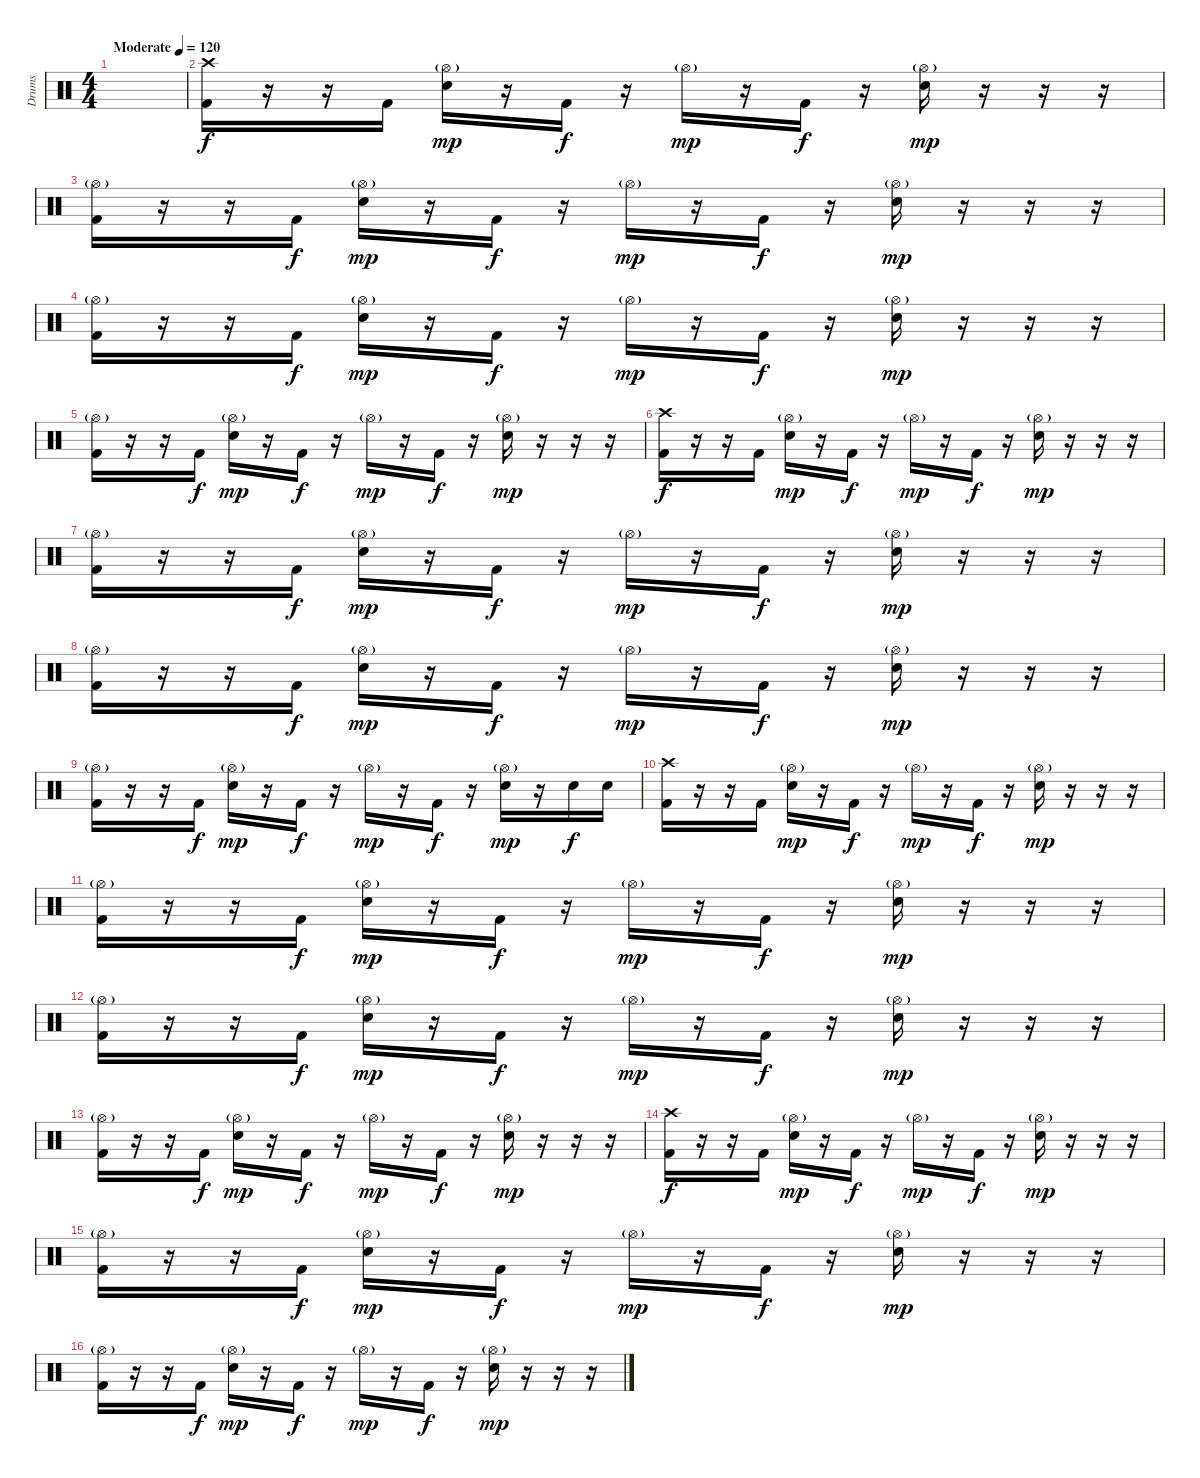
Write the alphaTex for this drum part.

\track ("Drums" "Drums") {instrument percussion}
\staff {score}
\articulation defaults
\ts (4 4)
\tempo (120 "Moderate")
\clef neutral
\ks c
|
("Crash high (hit)" "Kick (hit) 2").16 r.16 r.16 "Kick (hit) 2".16 ("Hi-Hat (open)"{g} "Electric Snare (hit)").16{dy mp} r.16 "Kick (hit) 2".16{dy f} r.16 "Hi-Hat (open)"{g}.16{dy mp} r.16 "Kick (hit) 2".16{dy f} r.16 ("Hi-Hat (open)"{g} "Electric Snare (hit)").16{dy mp} r.16 r.16 r.16 |
("Hi-Hat (open)"{g} "Kick (hit) 2").16 r.16 r.16 "Kick (hit) 2".16{dy f} ("Hi-Hat (open)"{g} "Electric Snare (hit)").16{dy mp} r.16 "Kick (hit) 2".16{dy f} r.16 "Hi-Hat (open)"{g}.16{dy mp} r.16 "Kick (hit) 2".16{dy f} r.16 ("Hi-Hat (open)"{g} "Electric Snare (hit)").16{dy mp} r.16 r.16 r.16 |
("Hi-Hat (open)"{g} "Kick (hit) 2").16 r.16 r.16 "Kick (hit) 2".16{dy f} ("Hi-Hat (open)"{g} "Electric Snare (hit)").16{dy mp} r.16 "Kick (hit) 2".16{dy f} r.16 "Hi-Hat (open)"{g}.16{dy mp} r.16 "Kick (hit) 2".16{dy f} r.16 ("Hi-Hat (open)"{g} "Electric Snare (hit)").16{dy mp} r.16 r.16 r.16 |
("Hi-Hat (open)"{g} "Kick (hit) 2").16 r.16 r.16 "Kick (hit) 2".16{dy f} ("Hi-Hat (open)"{g} "Electric Snare (hit)").16{dy mp} r.16 "Kick (hit) 2".16{dy f} r.16 "Hi-Hat (open)"{g}.16{dy mp} r.16 "Kick (hit) 2".16{dy f} r.16 ("Hi-Hat (open)"{g} "Electric Snare (hit)").16{dy mp} r.16 r.16 r.16 |
("Crash high (hit)" "Kick (hit) 2").16{dy f} r.16 r.16 "Kick (hit) 2".16 ("Hi-Hat (open)"{g} "Electric Snare (hit)").16{dy mp} r.16 "Kick (hit) 2".16{dy f} r.16 "Hi-Hat (open)"{g}.16{dy mp} r.16 "Kick (hit) 2".16{dy f} r.16 ("Hi-Hat (open)"{g} "Electric Snare (hit)").16{dy mp} r.16 r.16 r.16 |
("Hi-Hat (open)"{g} "Kick (hit) 2").16 r.16 r.16 "Kick (hit) 2".16{dy f} ("Hi-Hat (open)"{g} "Electric Snare (hit)").16{dy mp} r.16 "Kick (hit) 2".16{dy f} r.16 "Hi-Hat (open)"{g}.16{dy mp} r.16 "Kick (hit) 2".16{dy f} r.16 ("Hi-Hat (open)"{g} "Electric Snare (hit)").16{dy mp} r.16 r.16 r.16 |
("Hi-Hat (open)"{g} "Kick (hit) 2").16 r.16 r.16 "Kick (hit) 2".16{dy f} ("Hi-Hat (open)"{g} "Electric Snare (hit)").16{dy mp} r.16 "Kick (hit) 2".16{dy f} r.16 "Hi-Hat (open)"{g}.16{dy mp} r.16 "Kick (hit) 2".16{dy f} r.16 ("Hi-Hat (open)"{g} "Electric Snare (hit)").16{dy mp} r.16 r.16 r.16 |
("Hi-Hat (open)"{g} "Kick (hit) 2").16 r.16 r.16 "Kick (hit) 2".16{dy f} ("Hi-Hat (open)"{g} "Electric Snare (hit)").16{dy mp} r.16 "Kick (hit) 2".16{dy f} r.16 "Hi-Hat (open)"{g}.16{dy mp} r.16 "Kick (hit) 2".16{dy f} r.16 ("Hi-Hat (open)"{g} "Electric Snare (hit)").16{dy mp} r.16 "Electric Snare (hit)".16{dy f} "Electric Snare (hit)".16 |
("Crash high (hit)" "Kick (hit) 2").16 r.16 r.16 "Kick (hit) 2".16 ("Hi-Hat (open)"{g} "Electric Snare (hit)").16{dy mp} r.16 "Kick (hit) 2".16{dy f} r.16 "Hi-Hat (open)"{g}.16{dy mp} r.16 "Kick (hit) 2".16{dy f} r.16 ("Hi-Hat (open)"{g} "Electric Snare (hit)").16{dy mp} r.16 r.16 r.16 |
("Hi-Hat (open)"{g} "Kick (hit) 2").16 r.16 r.16 "Kick (hit) 2".16{dy f} ("Hi-Hat (open)"{g} "Electric Snare (hit)").16{dy mp} r.16 "Kick (hit) 2".16{dy f} r.16 "Hi-Hat (open)"{g}.16{dy mp} r.16 "Kick (hit) 2".16{dy f} r.16 ("Hi-Hat (open)"{g} "Electric Snare (hit)").16{dy mp} r.16 r.16 r.16 |
("Hi-Hat (open)"{g} "Kick (hit) 2").16 r.16 r.16 "Kick (hit) 2".16{dy f} ("Hi-Hat (open)"{g} "Electric Snare (hit)").16{dy mp} r.16 "Kick (hit) 2".16{dy f} r.16 "Hi-Hat (open)"{g}.16{dy mp} r.16 "Kick (hit) 2".16{dy f} r.16 ("Hi-Hat (open)"{g} "Electric Snare (hit)").16{dy mp} r.16 r.16 r.16 |
("Hi-Hat (open)"{g} "Kick (hit) 2").16 r.16 r.16 "Kick (hit) 2".16{dy f} ("Hi-Hat (open)"{g} "Electric Snare (hit)").16{dy mp} r.16 "Kick (hit) 2".16{dy f} r.16 "Hi-Hat (open)"{g}.16{dy mp} r.16 "Kick (hit) 2".16{dy f} r.16 ("Hi-Hat (open)"{g} "Electric Snare (hit)").16{dy mp} r.16 r.16 r.16 |
("Crash high (hit)" "Kick (hit) 2").16{dy f} r.16 r.16 "Kick (hit) 2".16 ("Hi-Hat (open)"{g} "Electric Snare (hit)").16{dy mp} r.16 "Kick (hit) 2".16{dy f} r.16 "Hi-Hat (open)"{g}.16{dy mp} r.16 "Kick (hit) 2".16{dy f} r.16 ("Hi-Hat (open)"{g} "Electric Snare (hit)").16{dy mp} r.16 r.16 r.16 |
("Hi-Hat (open)"{g} "Kick (hit) 2").16 r.16 r.16 "Kick (hit) 2".16{dy f} ("Hi-Hat (open)"{g} "Electric Snare (hit)").16{dy mp} r.16 "Kick (hit) 2".16{dy f} r.16 "Hi-Hat (open)"{g}.16{dy mp} r.16 "Kick (hit) 2".16{dy f} r.16 ("Hi-Hat (open)"{g} "Electric Snare (hit)").16{dy mp} r.16 r.16 r.16 |
("Hi-Hat (open)"{g} "Kick (hit) 2").16 r.16 r.16 "Kick (hit) 2".16{dy f} ("Hi-Hat (open)"{g} "Electric Snare (hit)").16{dy mp} r.16 "Kick (hit) 2".16{dy f} r.16 "Hi-Hat (open)"{g}.16{dy mp} r.16 "Kick (hit) 2".16{dy f} r.16 ("Hi-Hat (open)"{g} "Electric Snare (hit)").16{dy mp} r.16 r.16 r.16
